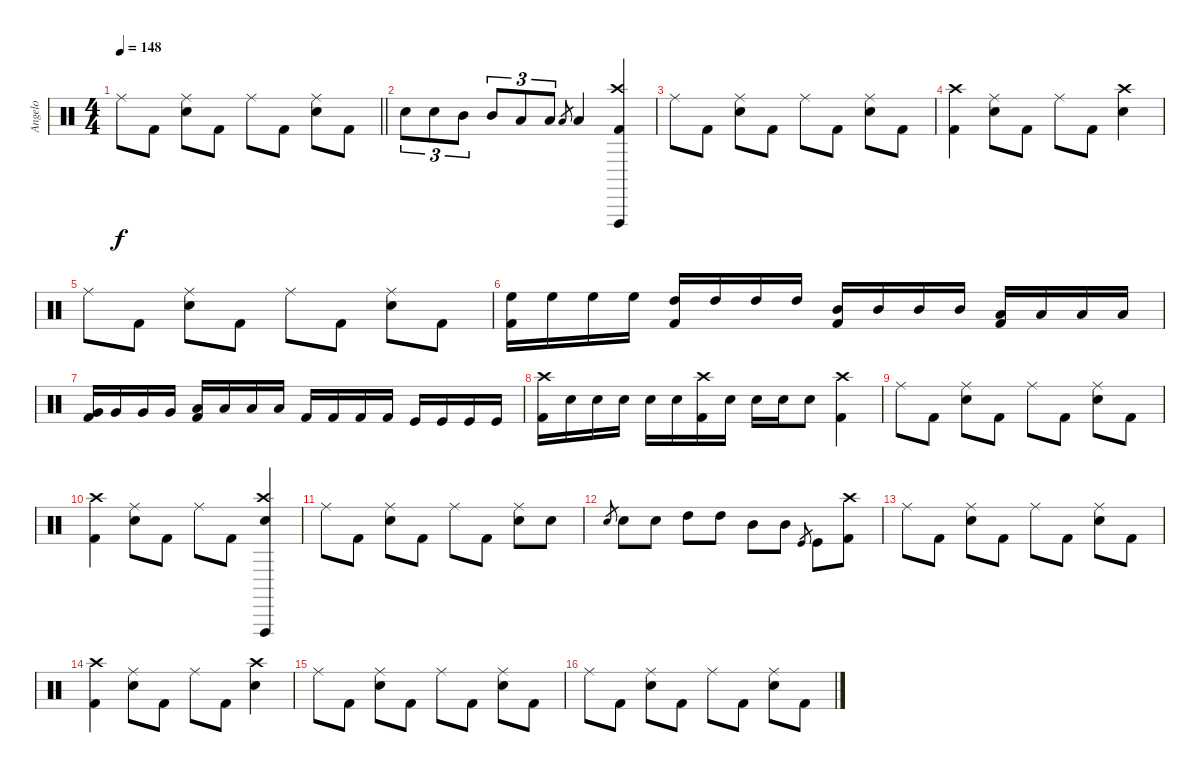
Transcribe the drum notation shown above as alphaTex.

\track ("Angelo" "Angelo") {instrument percussion}
\staff {score}
\articulation defaults
\ts (4 4)
\tempo 148
\clef neutral
\barLineRight lightlight
\ks c "Ride (middle)".8{dy f} "Kick (hit) 2".8
("Ride (middle)" "Snare (hit) 2").8 "Kick (hit) 2".8 "Ride (middle)".8 "Kick (hit) 2".8 ("Ride (middle)" "Snare (hit) 2").8 "Kick (hit) 2".8 |
"Snare (hit) 2".8{tu (3 2)} "Snare (hit) 2".8{tu (3 2)} "Mid Tom (hit)".8{tu (3 2)} "Mid Tom (hit)".8{tu (3 2)} "Low Tom (hit)".8{tu (3 2)} "Low Tom (hit)".8{tu (3 2)} "Low Floor Tom (hit)".8{gr} "Low Floor Tom (hit)".4 ("Crash high (hit)" "Vibraslap (hit)" "Kick (hit) 2").4 |
"Ride (middle)".8 "Kick (hit) 2".8 ("Ride (middle)" "Snare (hit) 2").8 "Kick (hit) 2".8 "Ride (middle)".8 "Kick (hit) 2".8 ("Ride (middle)" "Snare (hit) 2").8 "Kick (hit) 2".8 |
("Crash high (hit)" "Kick (hit) 2").4 ("Ride (middle)" "Snare (hit) 2").8 "Kick (hit) 2".8 "Ride (middle)".8 "Kick (hit) 2".8 ("Crash high (hit)" "Snare (hit) 2").4 |
"Ride (middle)".8 "Kick (hit) 2".8 ("Ride (middle)" "Snare (hit) 2").8 "Kick (hit) 2".8 "Ride (middle)".8 "Kick (hit) 2".8 ("Ride (middle)" "Snare (hit) 2").8 "Kick (hit) 2".8 |
("High Floor Tom (hit)" "Kick (hit) 2").16 "High Floor Tom (hit)".16 "High Floor Tom (hit)".16 "High Floor Tom (hit)".16 ("High Tom (hit)" "Kick (hit) 2").16 "High Tom (hit)".16 "High Tom (hit)".16 "High Tom (hit)".16 ("Mid Tom (hit)" "Kick (hit) 2").16 "Mid Tom (hit)".16 "Mid Tom (hit)".16 "Mid Tom (hit)".16 ("Low Tom (hit)" "Kick (hit) 2").16 "Low Tom (hit)".16 "Low Tom (hit)".16 "Low Tom (hit)".16 |
("Very Low Tom (hit)" "Kick (hit) 2").16 "Very Low Tom (hit)".16 "Very Low Tom (hit)".16 "Very Low Tom (hit)".16 ("Low Floor Tom (hit)" "Kick (hit) 2").16 "Low Floor Tom (hit)".16 "Low Floor Tom (hit)".16 "Low Floor Tom (hit)".16 "Kick (hit) 2".16 "Kick (hit) 2".16 "Kick (hit) 2".16 "Kick (hit) 2".16 "Kick (hit)".16 "Kick (hit)".16 "Kick (hit)".16 "Kick (hit)".16 |
("Crash high (hit)" "Kick (hit) 2").16 "Snare (hit) 2".16 "Snare (hit) 2".16 "Snare (hit) 2".16 "Snare (hit) 2".16 "Snare (hit) 2".16 ("Crash high (hit)" "Kick (hit) 2").16 "Snare (hit) 2".16 "Snare (hit) 2".16 "Snare (hit) 2".16 "Snare (hit) 2".8 ("Crash high (hit)" "Kick (hit) 2").4 |
"Ride (middle)".8 "Kick (hit) 2".8 ("Ride (middle)" "Snare (hit) 2").8 "Kick (hit) 2".8 "Ride (middle)".8 "Kick (hit) 2".8 ("Ride (middle)" "Snare (hit) 2").8 "Kick (hit) 2".8 |
("Crash high (hit)" "Kick (hit) 2").4 ("Ride (middle)" "Snare (hit) 2").8 "Kick (hit) 2".8 "Ride (middle)".8 "Kick (hit) 2".8 ("Crash high (hit)" "Vibraslap (hit)" "Snare (hit) 2").4 |
"Ride (middle)".8 "Kick (hit) 2".8 ("Ride (middle)" "Snare (hit) 2").8 "Kick (hit) 2".8 "Ride (middle)".8 "Kick (hit) 2".8 ("Ride (middle)" "Snare (hit) 2").8 "Snare (hit) 2".8 |
"Snare (hit) 2".8{gr} "Snare (hit) 2".8 "Snare (hit) 2".8 "High Tom (hit)".8 "High Tom (hit)".8 "Mid Tom (hit)".8 "Mid Tom (hit)".8 "Kick (hit)".8{gr} "Kick (hit)".8 ("Crash high (hit)" "Kick (hit) 2").8 |
"Ride (middle)".8 "Kick (hit) 2".8 ("Ride (middle)" "Snare (hit) 2").8 "Kick (hit) 2".8 "Ride (middle)".8 "Kick (hit) 2".8 ("Ride (middle)" "Snare (hit) 2").8 "Kick (hit) 2".8 |
("Crash high (hit)" "Kick (hit) 2").4 ("Ride (middle)" "Snare (hit) 2").8 "Kick (hit) 2".8 "Ride (middle)".8 "Kick (hit) 2".8 ("Crash high (hit)" "Snare (hit) 2").4 |
"Ride (middle)".8 "Kick (hit) 2".8 ("Ride (middle)" "Snare (hit) 2").8 "Kick (hit) 2".8 "Ride (middle)".8 "Kick (hit) 2".8 ("Ride (middle)" "Snare (hit) 2").8 "Kick (hit) 2".8 |
"Ride (middle)".8 "Kick (hit) 2".8 ("Ride (middle)" "Snare (hit) 2").8 "Kick (hit) 2".8 "Ride (middle)".8 "Kick (hit) 2".8 ("Ride (middle)" "Snare (hit) 2").8 "Kick (hit) 2".8
